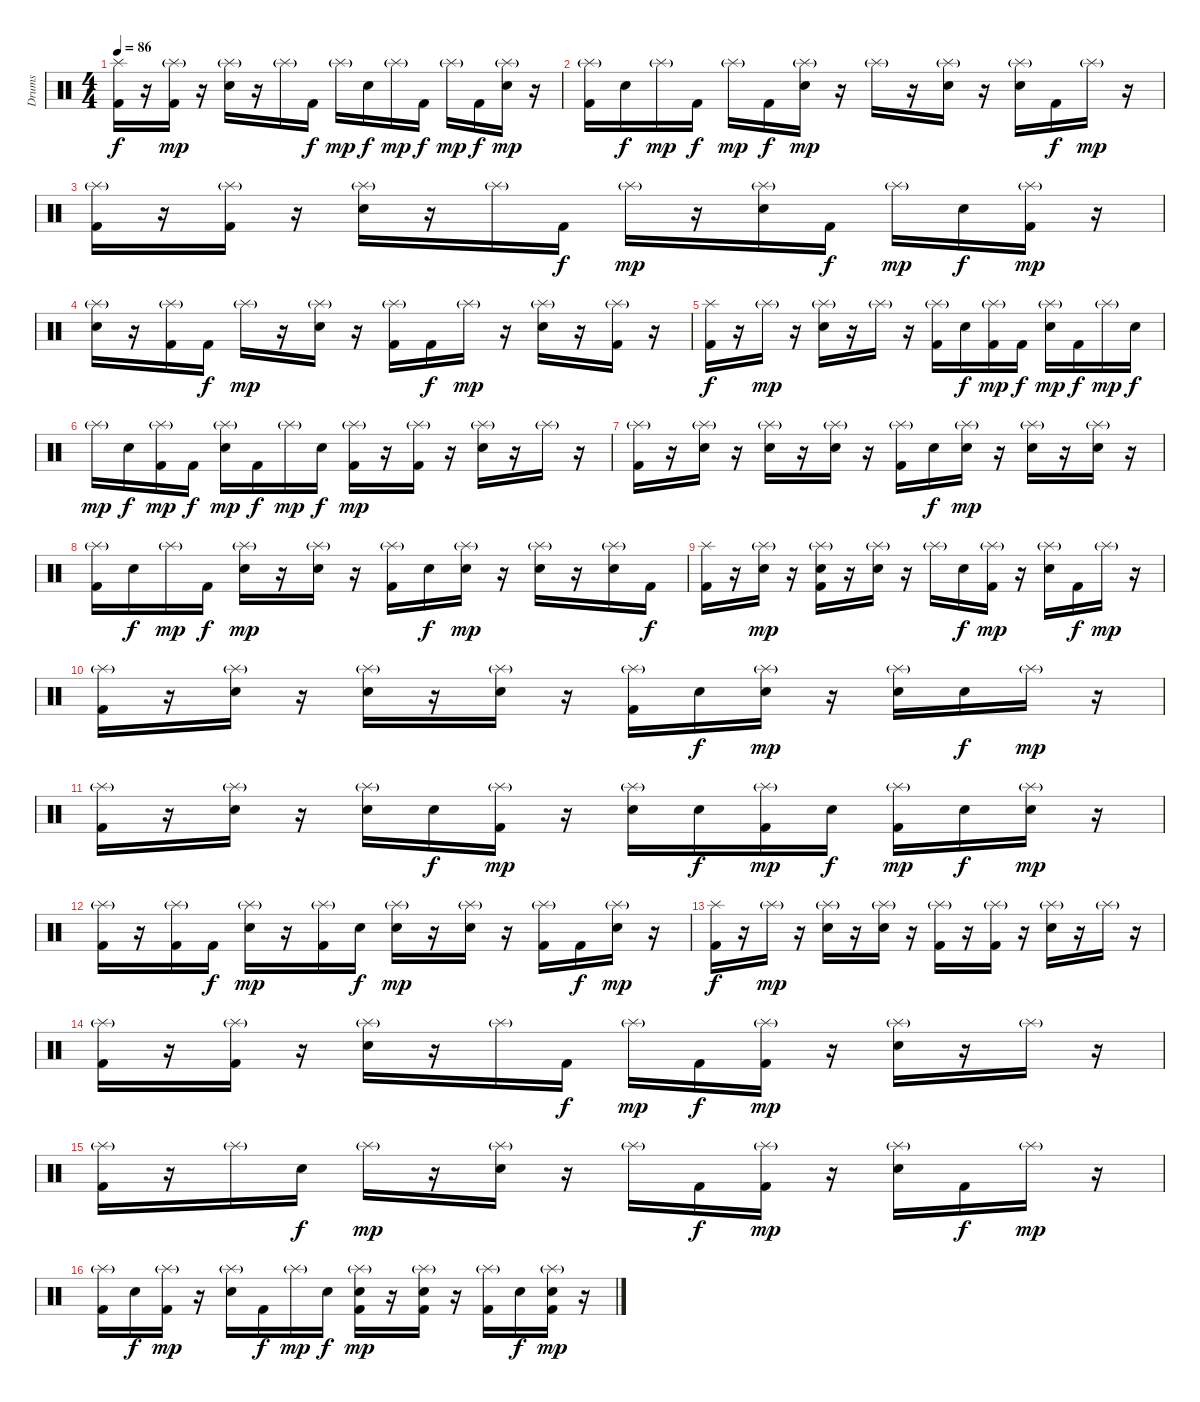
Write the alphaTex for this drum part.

\track ("Drums" "Drums") {instrument percussion}
\staff {score}
\articulation defaults
\ts (4 4)
\tempo 86
\clef neutral
\ks c
("Splash (hit)" "Kick (hit) 2").16{dy f} r.16 ("Splash (hit)"{g} "Kick (hit) 2").16{dy mp} r.16 ("Splash (hit)"{g} "Snare (hit) 2").16 r.16 "Splash (hit)"{g}.16 "Kick (hit) 2".16{dy f} "Splash (hit)"{g}.16{dy mp} "Snare (hit) 2".16{dy f} "Splash (hit)"{g}.16{dy mp} "Kick (hit) 2".16{dy f} "Splash (hit)"{g}.16{dy mp} "Kick (hit) 2".16{dy f} ("Splash (hit)"{g} "Snare (hit) 2").16{dy mp} r.16 |
("Splash (hit)"{g} "Kick (hit) 2").16 "Snare (hit) 2".16{dy f} "Splash (hit)"{g}.16{dy mp} "Kick (hit) 2".16{dy f} "Splash (hit)"{g}.16{dy mp} "Kick (hit) 2".16{dy f} ("Splash (hit)"{g} "Snare (hit) 2").16{dy mp} r.16 "Splash (hit)"{g}.16 r.16 ("Splash (hit)"{g} "Snare (hit) 2").16 r.16 ("Splash (hit)"{g} "Snare (hit) 2").16 "Kick (hit) 2".16{dy f} "Splash (hit)"{g}.16{dy mp} r.16 |
("Splash (hit)"{g} "Kick (hit) 2").16 r.16 ("Splash (hit)"{g} "Kick (hit) 2").16 r.16 ("Splash (hit)"{g} "Snare (hit) 2").16 r.16 "Splash (hit)"{g}.16 "Kick (hit) 2".16{dy f} "Splash (hit)"{g}.16{dy mp} r.16 ("Splash (hit)"{g} "Snare (hit) 2").16 "Kick (hit) 2".16{dy f} "Splash (hit)"{g}.16{dy mp} "Snare (hit) 2".16{dy f} ("Splash (hit)"{g} "Kick (hit) 2").16{dy mp} r.16 |
("Splash (hit)"{g} "Snare (hit) 2").16 r.16 ("Splash (hit)"{g} "Kick (hit) 2").16 "Kick (hit) 2".16{dy f} "Splash (hit)"{g}.16{dy mp} r.16 ("Splash (hit)"{g} "Snare (hit) 2").16 r.16 ("Splash (hit)"{g} "Kick (hit) 2").16 "Kick (hit) 2".16{dy f} "Splash (hit)"{g}.16{dy mp} r.16 ("Splash (hit)"{g} "Snare (hit) 2").16 r.16 ("Splash (hit)"{g} "Kick (hit) 2").16 r.16 |
("Splash (hit)" "Kick (hit) 2").16{dy f} r.16 "Splash (hit)"{g}.16{dy mp} r.16 ("Splash (hit)"{g} "Snare (hit) 2").16 r.16 "Splash (hit)"{g}.16 r.16 ("Splash (hit)"{g} "Kick (hit) 2").16 "Snare (hit) 2".16{dy f} ("Splash (hit)"{g} "Kick (hit) 2").16{dy mp} "Kick (hit) 2".16{dy f} ("Splash (hit)"{g} "Snare (hit) 2").16{dy mp} "Kick (hit) 2".16{dy f} "Splash (hit)"{g}.16{dy mp} "Snare (hit) 2".16{dy f} |
"Splash (hit)"{g}.16{dy mp} "Snare (hit) 2".16{dy f} ("Splash (hit)"{g} "Kick (hit) 2").16{dy mp} "Kick (hit) 2".16{dy f} ("Splash (hit)"{g} "Snare (hit) 2").16{dy mp} "Kick (hit) 2".16{dy f} "Splash (hit)"{g}.16{dy mp} "Snare (hit) 2".16{dy f} ("Splash (hit)"{g} "Kick (hit) 2").16{dy mp} r.16 ("Splash (hit)"{g} "Kick (hit) 2").16 r.16 ("Splash (hit)"{g} "Snare (hit) 2").16 r.16 "Splash (hit)"{g}.16 r.16 |
("Splash (hit)"{g} "Kick (hit) 2").16 r.16 ("Splash (hit)"{g} "Snare (hit) 2").16 r.16 ("Splash (hit)"{g} "Snare (hit) 2").16 r.16 ("Splash (hit)"{g} "Snare (hit) 2").16 r.16 ("Splash (hit)"{g} "Kick (hit) 2").16 "Snare (hit) 2".16{dy f} ("Splash (hit)"{g} "Snare (hit) 2").16{dy mp} r.16 ("Splash (hit)"{g} "Snare (hit) 2").16 r.16 ("Splash (hit)"{g} "Snare (hit) 2").16 r.16 |
("Splash (hit)"{g} "Kick (hit) 2").16 "Snare (hit) 2".16{dy f} "Splash (hit)"{g}.16{dy mp} "Kick (hit) 2".16{dy f} ("Splash (hit)"{g} "Snare (hit) 2").16{dy mp} r.16 ("Splash (hit)"{g} "Snare (hit) 2").16 r.16 ("Splash (hit)"{g} "Kick (hit) 2").16 "Snare (hit) 2".16{dy f} ("Splash (hit)"{g} "Snare (hit) 2").16{dy mp} r.16 ("Splash (hit)"{g} "Snare (hit) 2").16 r.16 ("Splash (hit)"{g} "Snare (hit) 2").16 "Kick (hit) 2".16{dy f} |
("Splash (hit)" "Kick (hit) 2").16 r.16 ("Splash (hit)"{g} "Snare (hit) 2").16{dy mp} r.16 ("Splash (hit)"{g} "Snare (hit) 2" "Kick (hit) 2").16 r.16 ("Splash (hit)"{g} "Snare (hit) 2").16 r.16 "Splash (hit)"{g}.16 "Snare (hit) 2".16{dy f} ("Splash (hit)"{g} "Kick (hit) 2").16{dy mp} r.16 ("Splash (hit)"{g} "Snare (hit) 2").16 "Kick (hit) 2".16{dy f} "Splash (hit)"{g}.16{dy mp} r.16 |
("Splash (hit)"{g} "Kick (hit) 2").16 r.16 ("Splash (hit)"{g} "Snare (hit) 2").16 r.16 ("Splash (hit)"{g} "Snare (hit) 2").16 r.16 ("Splash (hit)"{g} "Snare (hit) 2").16 r.16 ("Splash (hit)"{g} "Kick (hit) 2").16 "Snare (hit) 2".16{dy f} ("Splash (hit)"{g} "Snare (hit) 2").16{dy mp} r.16 ("Splash (hit)"{g} "Snare (hit) 2").16 "Snare (hit) 2".16{dy f} "Splash (hit)"{g}.16{dy mp} r.16 |
("Splash (hit)"{g} "Kick (hit) 2").16 r.16 ("Splash (hit)"{g} "Snare (hit) 2").16 r.16 ("Splash (hit)"{g} "Snare (hit) 2").16 "Snare (hit) 2".16{dy f} ("Splash (hit)"{g} "Kick (hit) 2").16{dy mp} r.16 ("Splash (hit)"{g} "Snare (hit) 2").16 "Snare (hit) 2".16{dy f} ("Splash (hit)"{g} "Kick (hit) 2").16{dy mp} "Snare (hit) 2".16{dy f} ("Splash (hit)"{g} "Kick (hit) 2").16{dy mp} "Snare (hit) 2".16{dy f} ("Splash (hit)"{g} "Snare (hit) 2").16{dy mp} r.16 |
("Splash (hit)"{g} "Kick (hit) 2").16 r.16 ("Splash (hit)"{g} "Kick (hit) 2").16 "Kick (hit) 2".16{dy f} ("Splash (hit)"{g} "Snare (hit) 2").16{dy mp} r.16 ("Splash (hit)"{g} "Kick (hit) 2").16 "Snare (hit) 2".16{dy f} ("Splash (hit)"{g} "Snare (hit) 2").16{dy mp} r.16 ("Splash (hit)"{g} "Snare (hit) 2").16 r.16 ("Splash (hit)"{g} "Kick (hit) 2").16 "Kick (hit) 2".16{dy f} ("Splash (hit)"{g} "Snare (hit) 2").16{dy mp} r.16 |
("Splash (hit)" "Kick (hit) 2").16{dy f} r.16 "Splash (hit)"{g}.16{dy mp} r.16 ("Splash (hit)"{g} "Snare (hit) 2").16 r.16 ("Splash (hit)"{g} "Snare (hit) 2").16 r.16 ("Splash (hit)"{g} "Kick (hit) 2").16 r.16 ("Splash (hit)"{g} "Kick (hit) 2").16 r.16 ("Splash (hit)"{g} "Snare (hit) 2").16 r.16 "Splash (hit)"{g}.16 r.16 |
("Splash (hit)"{g} "Kick (hit) 2").16 r.16 ("Splash (hit)"{g} "Kick (hit) 2").16 r.16 ("Splash (hit)"{g} "Snare (hit) 2").16 r.16 "Splash (hit)"{g}.16 "Kick (hit) 2".16{dy f} "Splash (hit)"{g}.16{dy mp} "Kick (hit) 2".16{dy f} ("Splash (hit)"{g} "Kick (hit) 2").16{dy mp} r.16 ("Splash (hit)"{g} "Snare (hit) 2").16 r.16 "Splash (hit)"{g}.16 r.16 |
("Splash (hit)"{g} "Kick (hit) 2").16 r.16 "Splash (hit)"{g}.16 "Snare (hit) 2".16{dy f} "Splash (hit)"{g}.16{dy mp} r.16 ("Splash (hit)"{g} "Snare (hit) 2").16 r.16 "Splash (hit)"{g}.16 "Kick (hit) 2".16{dy f} ("Splash (hit)"{g} "Kick (hit) 2").16{dy mp} r.16 ("Splash (hit)"{g} "Snare (hit) 2").16 "Kick (hit) 2".16{dy f} "Splash (hit)"{g}.16{dy mp} r.16 |
("Splash (hit)"{g} "Kick (hit) 2").16 "Snare (hit) 2".16{dy f} ("Splash (hit)"{g} "Kick (hit) 2").16{dy mp} r.16 ("Splash (hit)"{g} "Snare (hit) 2").16 "Kick (hit) 2".16{dy f} "Splash (hit)"{g}.16{dy mp} "Snare (hit) 2".16{dy f} ("Splash (hit)"{g} "Snare (hit) 2" "Kick (hit) 2").16{dy mp} r.16 ("Splash (hit)"{g} "Snare (hit) 2" "Kick (hit) 2").16 r.16 ("Splash (hit)"{g} "Kick (hit) 2").16 "Snare (hit) 2".16{dy f} ("Splash (hit)"{g} "Snare (hit) 2" "Kick (hit) 2").16{dy mp} r.16
